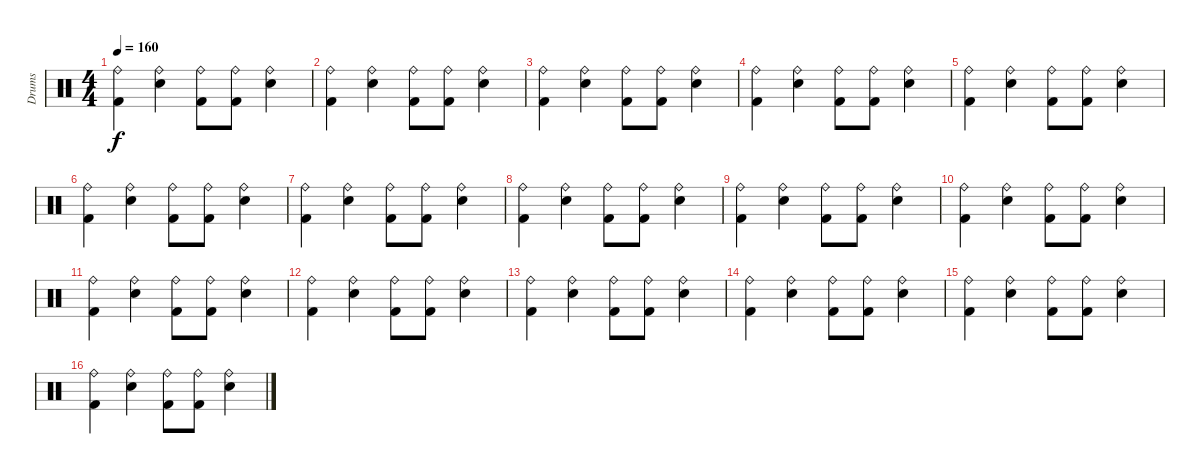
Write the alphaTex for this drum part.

\track ("Drums" "Drums") {instrument percussion}
\staff {score}
\articulation defaults
\ts (4 4)
\tempo 160
\clef neutral
\ks c
("Ride (bell)" "Kick (hit) 2").4{dy f} ("Electric Snare (hit)" "Ride (bell)").4 ("Kick (hit) 2" "Ride (bell)").8 ("Kick (hit) 2" "Ride (bell)").8 ("Electric Snare (hit)" "Ride (bell)").4 |
("Kick (hit) 2" "Ride (bell)").4 ("Electric Snare (hit)" "Ride (bell)").4 ("Kick (hit) 2" "Ride (bell)").8 ("Kick (hit) 2" "Ride (bell)").8 ("Electric Snare (hit)" "Ride (bell)").4 |
("Ride (bell)" "Kick (hit) 2").4 ("Electric Snare (hit)" "Ride (bell)").4 ("Kick (hit) 2" "Ride (bell)").8 ("Kick (hit) 2" "Ride (bell)").8 ("Electric Snare (hit)" "Ride (bell)").4 |
("Kick (hit) 2" "Ride (bell)").4 ("Electric Snare (hit)" "Ride (bell)").4 ("Kick (hit) 2" "Ride (bell)").8 ("Kick (hit) 2" "Ride (bell)").8 ("Electric Snare (hit)" "Ride (bell)").4 |
("Kick (hit) 2" "Ride (bell)").4 ("Electric Snare (hit)" "Ride (bell)").4 ("Kick (hit) 2" "Ride (bell)").8 ("Kick (hit) 2" "Ride (bell)").8 ("Electric Snare (hit)" "Ride (bell)").4 |
("Kick (hit) 2" "Ride (bell)").4 ("Electric Snare (hit)" "Ride (bell)").4 ("Kick (hit) 2" "Ride (bell)").8 ("Kick (hit) 2" "Ride (bell)").8 ("Electric Snare (hit)" "Ride (bell)").4 |
("Ride (bell)" "Kick (hit) 2").4 ("Electric Snare (hit)" "Ride (bell)").4 ("Kick (hit) 2" "Ride (bell)").8 ("Kick (hit) 2" "Ride (bell)").8 ("Electric Snare (hit)" "Ride (bell)").4 |
("Kick (hit) 2" "Ride (bell)").4 ("Electric Snare (hit)" "Ride (bell)").4 ("Kick (hit) 2" "Ride (bell)").8 ("Kick (hit) 2" "Ride (bell)").8 ("Electric Snare (hit)" "Ride (bell)").4 |
("Ride (bell)" "Kick (hit) 2").4 ("Electric Snare (hit)" "Ride (bell)").4 ("Kick (hit) 2" "Ride (bell)").8 ("Kick (hit) 2" "Ride (bell)").8 ("Electric Snare (hit)" "Ride (bell)").4 |
("Kick (hit) 2" "Ride (bell)").4 ("Electric Snare (hit)" "Ride (bell)").4 ("Kick (hit) 2" "Ride (bell)").8 ("Kick (hit) 2" "Ride (bell)").8 ("Electric Snare (hit)" "Ride (bell)").4 |
("Ride (bell)" "Kick (hit) 2").4 ("Electric Snare (hit)" "Ride (bell)").4 ("Kick (hit) 2" "Ride (bell)").8 ("Kick (hit) 2" "Ride (bell)").8 ("Electric Snare (hit)" "Ride (bell)").4 |
("Kick (hit) 2" "Ride (bell)").4 ("Electric Snare (hit)" "Ride (bell)").4 ("Kick (hit) 2" "Ride (bell)").8 ("Kick (hit) 2" "Ride (bell)").8 ("Electric Snare (hit)" "Ride (bell)").4 |
("Ride (bell)" "Kick (hit) 2").4 ("Electric Snare (hit)" "Ride (bell)").4 ("Kick (hit) 2" "Ride (bell)").8 ("Kick (hit) 2" "Ride (bell)").8 ("Electric Snare (hit)" "Ride (bell)").4 |
("Kick (hit) 2" "Ride (bell)").4 ("Electric Snare (hit)" "Ride (bell)").4 ("Kick (hit) 2" "Ride (bell)").8 ("Kick (hit) 2" "Ride (bell)").8 ("Electric Snare (hit)" "Ride (bell)").4 |
("Ride (bell)" "Kick (hit) 2").4 ("Electric Snare (hit)" "Ride (bell)").4 ("Kick (hit) 2" "Ride (bell)").8 ("Kick (hit) 2" "Ride (bell)").8 ("Electric Snare (hit)" "Ride (bell)").4 |
("Kick (hit) 2" "Ride (bell)").4 ("Electric Snare (hit)" "Ride (bell)").4 ("Kick (hit) 2" "Ride (bell)").8 ("Kick (hit) 2" "Ride (bell)").8 ("Electric Snare (hit)" "Ride (bell)").4
